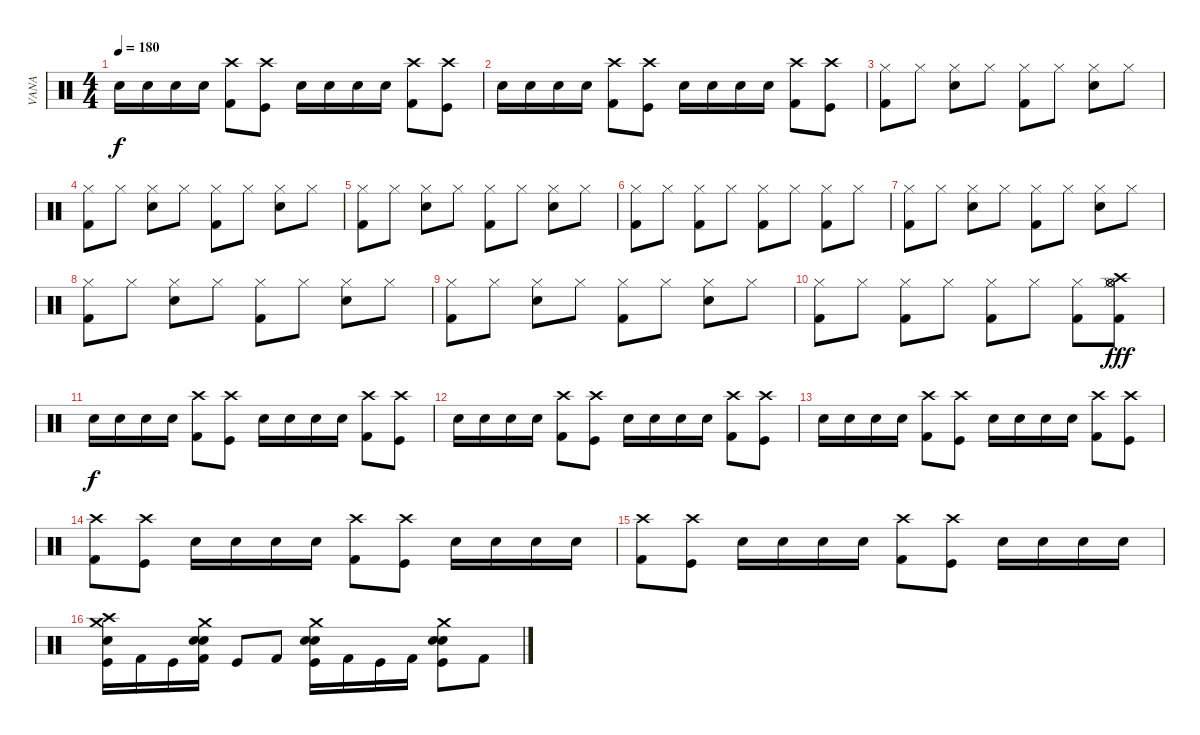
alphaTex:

\track ("VANA" "VANA") {instrument percussion}
\staff {score}
\articulation defaults
\ts (4 4)
\tempo 180
\clef neutral
\ks c "Electric Snare (hit)".16{dy f} "Electric Snare (hit)".16 "Electric Snare (hit)".16 "Electric Snare (hit)".16
("Crash high (hit)" "Kick (hit) 2").8 ("Crash high (hit)" "Kick (hit)").8 "Electric Snare (hit)".16 "Electric Snare (hit)".16 "Electric Snare (hit)".16 "Electric Snare (hit)".16 ("Crash high (hit)" "Kick (hit) 2").8 ("Crash high (hit)" "Kick (hit)").8 |
"Electric Snare (hit)".16 "Electric Snare (hit)".16 "Electric Snare (hit)".16 "Electric Snare (hit)".16 ("Crash high (hit)" "Kick (hit) 2").8 ("Crash high (hit)" "Kick (hit)").8 "Electric Snare (hit)".16 "Electric Snare (hit)".16 "Electric Snare (hit)".16 "Electric Snare (hit)".16 ("Crash high (hit)" "Kick (hit) 2").8 ("Crash high (hit)" "Kick (hit)").8 |
("Hi-Hat (closed)" "Kick (hit) 2").8 "Hi-Hat (closed)".8 ("Hi-Hat (closed)" "Electric Snare (hit)").8 "Hi-Hat (closed)".8 ("Hi-Hat (closed)" "Kick (hit) 2").8 "Hi-Hat (closed)".8 ("Hi-Hat (closed)" "Electric Snare (hit)").8 "Hi-Hat (closed)".8 |
("Hi-Hat (closed)" "Kick (hit) 2").8 "Hi-Hat (closed)".8 ("Hi-Hat (closed)" "Electric Snare (hit)").8 "Hi-Hat (closed)".8 ("Hi-Hat (closed)" "Kick (hit) 2").8 "Hi-Hat (closed)".8 ("Hi-Hat (closed)" "Electric Snare (hit)").8 "Hi-Hat (closed)".8 |
("Hi-Hat (closed)" "Kick (hit) 2").8 "Hi-Hat (closed)".8 ("Hi-Hat (closed)" "Electric Snare (hit)").8 "Hi-Hat (closed)".8 ("Hi-Hat (closed)" "Kick (hit) 2").8 "Hi-Hat (closed)".8 ("Hi-Hat (closed)" "Electric Snare (hit)").8 "Hi-Hat (closed)".8 |
("Hi-Hat (closed)" "Kick (hit) 2").8 "Hi-Hat (closed)".8 ("Hi-Hat (closed)" "Kick (hit) 2").8 "Hi-Hat (closed)".8 ("Hi-Hat (closed)" "Kick (hit) 2").8 "Hi-Hat (closed)".8 ("Hi-Hat (closed)" "Kick (hit) 2").8 "Hi-Hat (closed)".8 |
("Hi-Hat (closed)" "Kick (hit) 2").8 "Hi-Hat (closed)".8 ("Hi-Hat (closed)" "Electric Snare (hit)").8 "Hi-Hat (closed)".8 ("Hi-Hat (closed)" "Kick (hit) 2").8 "Hi-Hat (closed)".8 ("Hi-Hat (closed)" "Electric Snare (hit)").8 "Hi-Hat (closed)".8 |
("Hi-Hat (closed)" "Kick (hit) 2").8 "Hi-Hat (closed)".8 ("Hi-Hat (closed)" "Electric Snare (hit)").8 "Hi-Hat (closed)".8 ("Hi-Hat (closed)" "Kick (hit) 2").8 "Hi-Hat (closed)".8 ("Hi-Hat (closed)" "Electric Snare (hit)").8 "Hi-Hat (closed)".8 |
("Hi-Hat (closed)" "Kick (hit) 2").8 "Hi-Hat (closed)".8 ("Hi-Hat (closed)" "Electric Snare (hit)").8 "Hi-Hat (closed)".8 ("Hi-Hat (closed)" "Kick (hit) 2").8 "Hi-Hat (closed)".8 ("Hi-Hat (closed)" "Electric Snare (hit)").8 "Hi-Hat (closed)".8 |
("Hi-Hat (closed)" "Kick (hit) 2").8 "Hi-Hat (closed)".8 ("Hi-Hat (closed)" "Kick (hit) 2").8 "Hi-Hat (closed)".8 ("Hi-Hat (closed)" "Kick (hit) 2").8 "Hi-Hat (closed)".8 ("Hi-Hat (closed)" "Kick (hit) 2").8 ("Hi-Hat (closed)" "Hi-Hat (open)" "Hi-Hat (open)" "Crash high (hit)" "Kick (hit) 2").8{dy fff} |
"Electric Snare (hit)".16{dy f} "Electric Snare (hit)".16 "Electric Snare (hit)".16 "Electric Snare (hit)".16 ("Crash high (hit)" "Kick (hit) 2").8 ("Crash high (hit)" "Kick (hit)").8 "Electric Snare (hit)".16 "Electric Snare (hit)".16 "Electric Snare (hit)".16 "Electric Snare (hit)".16 ("Crash high (hit)" "Kick (hit) 2").8 ("Crash high (hit)" "Kick (hit)").8 |
"Electric Snare (hit)".16 "Electric Snare (hit)".16 "Electric Snare (hit)".16 "Electric Snare (hit)".16 ("Crash high (hit)" "Kick (hit) 2").8 ("Crash high (hit)" "Kick (hit)").8 "Electric Snare (hit)".16 "Electric Snare (hit)".16 "Electric Snare (hit)".16 "Electric Snare (hit)".16 ("Crash high (hit)" "Kick (hit) 2").8 ("Crash high (hit)" "Kick (hit)").8 |
"Electric Snare (hit)".16 "Electric Snare (hit)".16 "Electric Snare (hit)".16 "Electric Snare (hit)".16 ("Crash high (hit)" "Kick (hit) 2").8 ("Crash high (hit)" "Kick (hit)").8 "Electric Snare (hit)".16 "Electric Snare (hit)".16 "Electric Snare (hit)".16 "Electric Snare (hit)".16 ("Crash high (hit)" "Kick (hit) 2").8 ("Crash high (hit)" "Kick (hit)").8 |
("Crash high (hit)" "Kick (hit) 2").8 ("Crash high (hit)" "Kick (hit)").8 "Electric Snare (hit)".16 "Electric Snare (hit)".16 "Electric Snare (hit)".16 "Electric Snare (hit)".16 ("Crash high (hit)" "Kick (hit) 2").8 ("Crash high (hit)" "Kick (hit)").8 "Electric Snare (hit)".16 "Electric Snare (hit)".16 "Electric Snare (hit)".16 "Electric Snare (hit)".16 |
("Crash high (hit)" "Kick (hit) 2").8 ("Crash high (hit)" "Kick (hit)").8 "Electric Snare (hit)".16 "Electric Snare (hit)".16 "Electric Snare (hit)".16 "Electric Snare (hit)".16 ("Crash high (hit)" "Kick (hit) 2").8 ("Crash high (hit)" "Kick (hit)").8 "Electric Snare (hit)".16 "Electric Snare (hit)".16 "Electric Snare (hit)".16 "Electric Snare (hit)".16 |
("Snare (hit) 2" "Crash medium (hit)" "Crash high (hit)" "Kick (hit)").16 "Kick (hit) 2".16 "Kick (hit)".16 ("Snare (hit) 2" "Crash medium (hit)" "Electric Snare (hit)" "Kick (hit) 2").16 "Kick (hit)".8 "Kick (hit) 2".8 ("Snare (hit) 2" "Crash medium (hit)" "Electric Snare (hit)" "Kick (hit)").16 "Kick (hit) 2".16 "Kick (hit)".16 "Kick (hit) 2".16 ("Snare (hit) 2" "Crash medium (hit)" "Electric Snare (hit)" "Kick (hit)").8 "Kick (hit) 2".8
